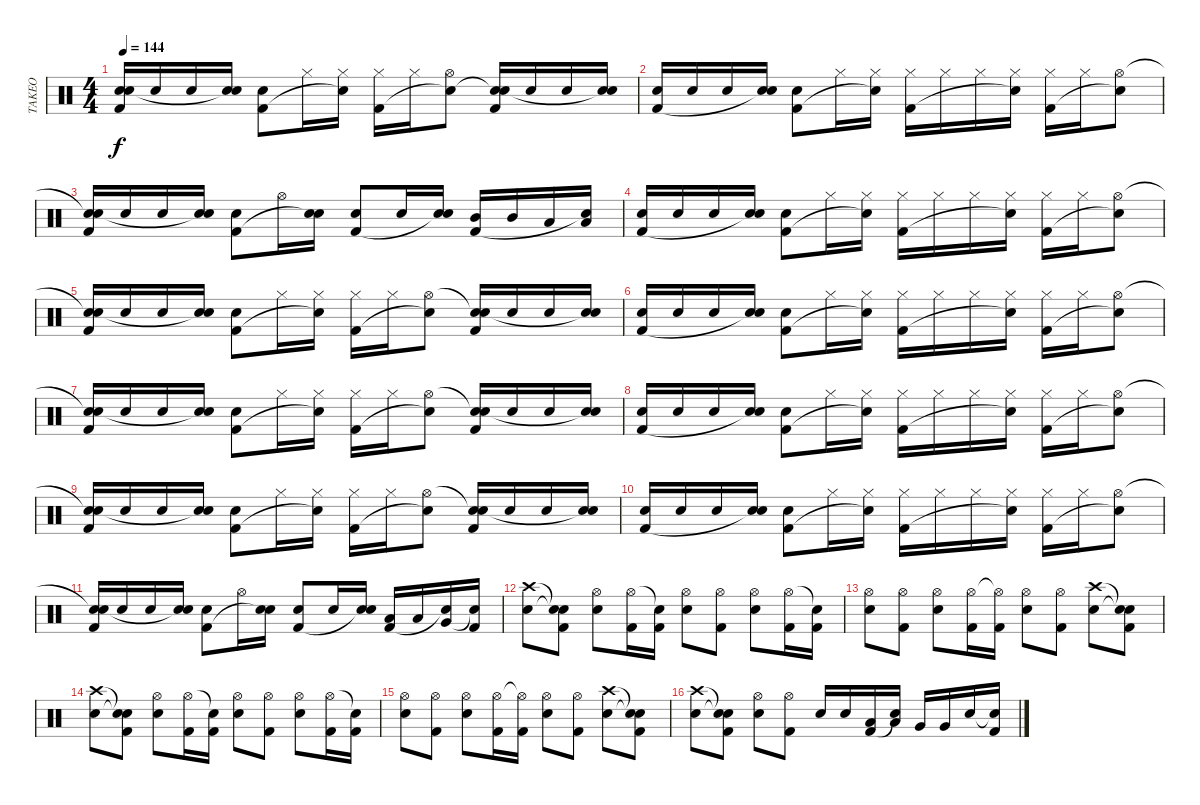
\track ("TAKEO" "TAKEO") {instrument percussion}
\staff {score}
\articulation defaults
\ts (4 4)
\tempo 144
\clef neutral
\ks c
("Snare (hit)"{t} "Electric Snare (hit)" "Kick (hit) 2").16{dy f} "Electric Snare (hit)".16 "Electric Snare (hit)".16 ("Electric Snare (hit)" "Snare (hit)"{t}).16 ("Electric Snare (hit)" "Kick (hit) 2").8 "Hi-Hat (closed)".16 ("Hi-Hat (closed)" "Snare (hit)"{t}).16 ("Hi-Hat (closed)" "Kick (hit) 2").16 "Hi-Hat (closed)".16 ("Hi-Hat (open)" "Snare (hit)"{t}).8 ("Electric Snare (hit)" "Snare (hit)"{t} "Kick (hit) 2").16 "Electric Snare (hit)".16 "Electric Snare (hit)".16 ("Electric Snare (hit)" "Snare (hit)"{t}).16 |
("Electric Snare (hit)" "Kick (hit) 2").16 "Electric Snare (hit)".16 "Electric Snare (hit)".16 ("Electric Snare (hit)" "Snare (hit)"{t}).16 ("Electric Snare (hit)" "Kick (hit) 2").8 "Hi-Hat (closed)".16 ("Hi-Hat (closed)" "Snare (hit)"{t}).16 ("Hi-Hat (closed)" "Kick (hit) 2").16 "Hi-Hat (closed)".16 "Hi-Hat (closed)".16 ("Hi-Hat (closed)" "Snare (hit)"{t}).16 ("Hi-Hat (closed)" "Kick (hit) 2").16 "Hi-Hat (closed)".16 ("Hi-Hat (open)" "Snare (hit)"{t}).8 |
("Snare (hit)"{t} "Electric Snare (hit)" "Kick (hit) 2").16 "Electric Snare (hit)".16 "Electric Snare (hit)".16 ("Electric Snare (hit)" "Snare (hit)"{t}).16 ("Electric Snare (hit)" "Kick (hit) 2").8 "Hi-Hat (open)".16 ("Electric Snare (hit)" "Snare (hit)"{t}).16 ("Electric Snare (hit)" "Kick (hit) 2").8 "Electric Snare (hit)".16 ("Electric Snare (hit)" "Snare (hit)"{t}).16 ("Mid Tom (hit)" "Kick (hit) 2").16 "Mid Tom (hit)".16 "Low Tom (hit)".16 ("Low Tom (hit)" "Snare (hit)"{t}).16 |
("Electric Snare (hit)" "Kick (hit) 2").16 "Electric Snare (hit)".16 "Electric Snare (hit)".16 ("Electric Snare (hit)" "Snare (hit)"{t}).16 ("Electric Snare (hit)" "Kick (hit) 2").8 "Hi-Hat (closed)".16 ("Hi-Hat (closed)" "Snare (hit)"{t}).16 ("Hi-Hat (closed)" "Kick (hit) 2").16 "Hi-Hat (closed)".16 "Hi-Hat (closed)".16 ("Hi-Hat (closed)" "Snare (hit)"{t}).16 ("Hi-Hat (closed)" "Kick (hit) 2").16 "Hi-Hat (closed)".16 ("Hi-Hat (open)" "Snare (hit)"{t}).8 |
("Snare (hit)"{t} "Electric Snare (hit)" "Kick (hit) 2").16 "Electric Snare (hit)".16 "Electric Snare (hit)".16 ("Electric Snare (hit)" "Snare (hit)"{t}).16 ("Electric Snare (hit)" "Kick (hit) 2").8 "Hi-Hat (closed)".16 ("Hi-Hat (closed)" "Snare (hit)"{t}).16 ("Hi-Hat (closed)" "Kick (hit) 2").16 "Hi-Hat (closed)".16 ("Hi-Hat (open)" "Snare (hit)"{t}).8 ("Snare (hit)"{t} "Electric Snare (hit)" "Kick (hit) 2").16 "Electric Snare (hit)".16 "Electric Snare (hit)".16 ("Electric Snare (hit)" "Snare (hit)"{t}).16 |
("Electric Snare (hit)" "Kick (hit) 2").16 "Electric Snare (hit)".16 "Electric Snare (hit)".16 ("Electric Snare (hit)" "Snare (hit)"{t}).16 ("Electric Snare (hit)" "Kick (hit) 2").8 "Hi-Hat (closed)".16 ("Hi-Hat (closed)" "Snare (hit)"{t}).16 ("Hi-Hat (closed)" "Kick (hit) 2").16 "Hi-Hat (closed)".16 "Hi-Hat (closed)".16 ("Hi-Hat (closed)" "Snare (hit)"{t}).16 ("Hi-Hat (closed)" "Kick (hit) 2").16 "Hi-Hat (closed)".16 ("Hi-Hat (open)" "Snare (hit)"{t}).8 |
("Snare (hit)"{t} "Electric Snare (hit)" "Kick (hit) 2").16 "Electric Snare (hit)".16 "Electric Snare (hit)".16 ("Electric Snare (hit)" "Snare (hit)"{t}).16 ("Electric Snare (hit)" "Kick (hit) 2").8 "Hi-Hat (closed)".16 ("Hi-Hat (closed)" "Snare (hit)"{t}).16 ("Hi-Hat (closed)" "Kick (hit) 2").16 "Hi-Hat (closed)".16 ("Hi-Hat (open)" "Snare (hit)"{t}).8 ("Snare (hit)"{t} "Electric Snare (hit)" "Kick (hit) 2").16 "Electric Snare (hit)".16 "Electric Snare (hit)".16 ("Electric Snare (hit)" "Snare (hit)"{t}).16 |
("Electric Snare (hit)" "Kick (hit) 2").16 "Electric Snare (hit)".16 "Electric Snare (hit)".16 ("Electric Snare (hit)" "Snare (hit)"{t}).16 ("Electric Snare (hit)" "Kick (hit) 2").8 "Hi-Hat (closed)".16 ("Hi-Hat (closed)" "Snare (hit)"{t}).16 ("Hi-Hat (closed)" "Kick (hit) 2").16 "Hi-Hat (closed)".16 "Hi-Hat (closed)".16 ("Hi-Hat (closed)" "Snare (hit)"{t}).16 ("Hi-Hat (closed)" "Kick (hit) 2").16 "Hi-Hat (closed)".16 ("Hi-Hat (open)" "Snare (hit)"{t}).8 |
("Snare (hit)"{t} "Electric Snare (hit)" "Kick (hit) 2").16 "Electric Snare (hit)".16 "Electric Snare (hit)".16 ("Electric Snare (hit)" "Snare (hit)"{t}).16 ("Electric Snare (hit)" "Kick (hit) 2").8 "Hi-Hat (closed)".16 ("Hi-Hat (closed)" "Snare (hit)"{t}).16 ("Hi-Hat (closed)" "Kick (hit) 2").16 "Hi-Hat (closed)".16 ("Hi-Hat (open)" "Snare (hit)"{t}).8 ("Snare (hit)"{t} "Electric Snare (hit)" "Kick (hit) 2").16 "Electric Snare (hit)".16 "Electric Snare (hit)".16 ("Electric Snare (hit)" "Snare (hit)"{t}).16 |
("Electric Snare (hit)" "Kick (hit) 2").16 "Electric Snare (hit)".16 "Electric Snare (hit)".16 ("Electric Snare (hit)" "Snare (hit)"{t}).16 ("Electric Snare (hit)" "Kick (hit) 2").8 "Hi-Hat (closed)".16 ("Hi-Hat (closed)" "Snare (hit)"{t}).16 ("Hi-Hat (closed)" "Kick (hit) 2").16 "Hi-Hat (closed)".16 "Hi-Hat (closed)".16 ("Hi-Hat (closed)" "Snare (hit)"{t}).16 ("Hi-Hat (closed)" "Kick (hit) 2").16 "Hi-Hat (closed)".16 ("Hi-Hat (open)" "Snare (hit)"{t}).8 |
("Snare (hit)"{t} "Electric Snare (hit)" "Kick (hit) 2").16 "Electric Snare (hit)".16 "Electric Snare (hit)".16 ("Electric Snare (hit)" "Snare (hit)"{t}).16 ("Electric Snare (hit)" "Kick (hit) 2").8 "Hi-Hat (open)".16 ("Electric Snare (hit)" "Snare (hit)"{t}).16 ("Electric Snare (hit)" "Kick (hit) 2").8 "Electric Snare (hit)".16 ("Electric Snare (hit)" "Snare (hit)"{t}).16 ("Low Tom (hit)" "Kick (hit) 2").16 "Low Tom (hit)".16 ("Very Low Tom (hit)" "Snare (hit)"{t}).16 ("Snare (hit)"{t} "Kick (hit) 2").16 |
("Crash high (hit)" "Electric Snare (hit)").8 ("Snare (hit)"{t} "Snare (hit)"{t} "Kick (hit) 2").8 ("Hi-Hat (open)" "Electric Snare (hit)").8 ("Hi-Hat (open)" "Kick (hit) 2").16 ("Snare (hit)"{t} "Kick (hit) 2").16 ("Hi-Hat (open)" "Electric Snare (hit)").8 ("Hi-Hat (open)" "Kick (hit) 2").8 ("Hi-Hat (open)" "Electric Snare (hit)").8 ("Hi-Hat (open)" "Kick (hit) 2").16 ("Snare (hit)"{t} "Kick (hit) 2").16 |
("Hi-Hat (open)" "Electric Snare (hit)").8 ("Hi-Hat (open)" "Kick (hit) 2").8 ("Hi-Hat (open)" "Electric Snare (hit)").8 ("Hi-Hat (open)" "Kick (hit) 2").16 ("Hi-Hat (open)"{t} "Kick (hit) 2").16 ("Hi-Hat (open)" "Electric Snare (hit)").8 ("Hi-Hat (open)" "Kick (hit) 2").8 ("Crash high (hit)" "Electric Snare (hit)").8 ("Snare (hit)"{t} "Snare (hit)"{t} "Kick (hit) 2").8 |
("Crash high (hit)" "Electric Snare (hit)").8 ("Snare (hit)"{t} "Snare (hit)"{t} "Kick (hit) 2").8 ("Hi-Hat (open)" "Electric Snare (hit)").8 ("Hi-Hat (open)" "Kick (hit) 2").16 ("Snare (hit)"{t} "Kick (hit) 2").16 ("Hi-Hat (open)" "Electric Snare (hit)").8 ("Hi-Hat (open)" "Kick (hit) 2").8 ("Hi-Hat (open)" "Electric Snare (hit)").8 ("Hi-Hat (open)" "Kick (hit) 2").16 ("Snare (hit)"{t} "Kick (hit) 2").16 |
("Hi-Hat (open)" "Electric Snare (hit)").8 ("Hi-Hat (open)" "Kick (hit) 2").8 ("Hi-Hat (open)" "Electric Snare (hit)").8 ("Hi-Hat (open)" "Kick (hit) 2").16 ("Hi-Hat (open)"{t} "Kick (hit) 2").16 ("Hi-Hat (open)" "Electric Snare (hit)").8 ("Hi-Hat (open)" "Kick (hit) 2").8 ("Crash high (hit)" "Electric Snare (hit)").8 ("Snare (hit)"{t} "Snare (hit)"{t} "Kick (hit) 2").8 |
("Crash high (hit)" "Electric Snare (hit)").8 ("Snare (hit)"{t} "Snare (hit)"{t} "Kick (hit) 2").8 ("Hi-Hat (open)" "Electric Snare (hit)").8 ("Hi-Hat (open)" "Kick (hit) 2").8 "Electric Snare (hit)".16 "Electric Snare (hit)".16 ("Low Tom (hit)" "Kick (hit) 2").16 ("Low Tom (hit)" "Snare (hit)"{t}).16 "Very Low Tom (hit)".16 "Very Low Tom (hit)".16 "Electric Snare (hit)".16 ("Snare (hit)"{t} "Kick (hit) 2").16
